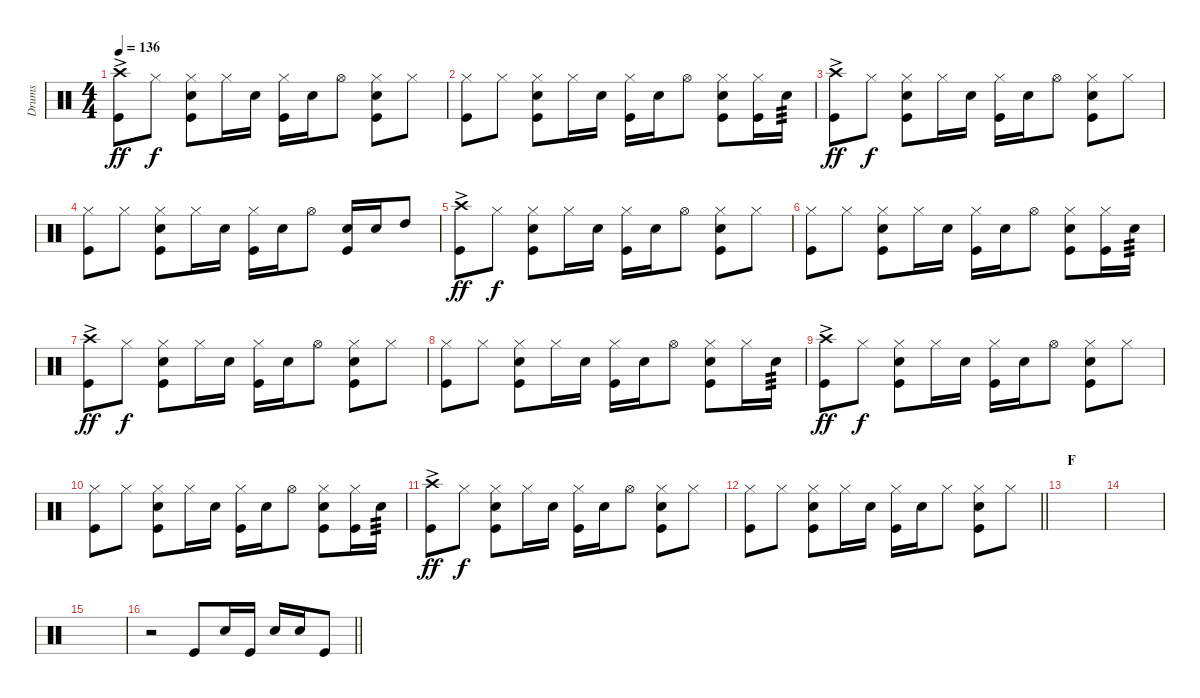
\track ("Drums" "Drums") {instrument percussion}
\staff {score}
\articulation defaults
\ts (4 4)
\tempo 136
\clef neutral
\ks c
("Crash high (hit)"{ac} "Kick (hit)").8{dy ff} "Hi-Hat (closed)".8{dy f} ("Hi-Hat (closed)" "Snare (hit) 2" "Kick (hit)").8 "Hi-Hat (closed)".16 "Snare (hit) 2".16 ("Hi-Hat (closed)" "Kick (hit)").16 "Snare (hit) 2".16 "Hi-Hat (open)".8 ("Hi-Hat (closed)" "Snare (hit) 2" "Kick (hit)").8 "Hi-Hat (closed)".8 |
("Hi-Hat (closed)" "Kick (hit)").8 "Hi-Hat (closed)".8 ("Hi-Hat (closed)" "Snare (hit) 2" "Kick (hit)").8 "Hi-Hat (closed)".16 "Snare (hit) 2".16 ("Hi-Hat (closed)" "Kick (hit)").16 "Snare (hit) 2".16 "Hi-Hat (open)".8 ("Hi-Hat (closed)" "Snare (hit) 2" "Kick (hit)").8 ("Hi-Hat (closed)" "Kick (hit)").16 "Snare (hit) 2".16{tp 3} |
("Crash high (hit)"{ac} "Kick (hit)").8{dy ff} "Hi-Hat (closed)".8{dy f} ("Hi-Hat (closed)" "Snare (hit) 2" "Kick (hit)").8 "Hi-Hat (closed)".16 "Snare (hit) 2".16 ("Hi-Hat (closed)" "Kick (hit)").16 "Snare (hit) 2".16 "Hi-Hat (open)".8 ("Hi-Hat (closed)" "Snare (hit) 2" "Kick (hit)").8 "Hi-Hat (closed)".8 |
("Hi-Hat (closed)" "Kick (hit)").8 "Hi-Hat (closed)".8 ("Hi-Hat (closed)" "Snare (hit) 2" "Kick (hit)").8 "Hi-Hat (closed)".16 "Snare (hit) 2".16 ("Hi-Hat (closed)" "Kick (hit)").16 "Snare (hit) 2".16 "Hi-Hat (open)".8 ("Kick (hit)" "Snare (hit) 2").16 "Snare (hit) 2".16 "High Tom (hit)".8 |
("Crash high (hit)"{ac} "Kick (hit)").8{dy ff} "Hi-Hat (closed)".8{dy f} ("Hi-Hat (closed)" "Snare (hit) 2" "Kick (hit)").8 "Hi-Hat (closed)".16 "Snare (hit) 2".16 ("Hi-Hat (closed)" "Kick (hit)").16 "Snare (hit) 2".16 "Hi-Hat (open)".8 ("Hi-Hat (closed)" "Snare (hit) 2" "Kick (hit)").8 "Hi-Hat (closed)".8 |
("Hi-Hat (closed)" "Kick (hit)").8 "Hi-Hat (closed)".8 ("Hi-Hat (closed)" "Snare (hit) 2" "Kick (hit)").8 "Hi-Hat (closed)".16 "Snare (hit) 2".16 ("Hi-Hat (closed)" "Kick (hit)").16 "Snare (hit) 2".16 "Hi-Hat (open)".8 ("Hi-Hat (closed)" "Snare (hit) 2" "Kick (hit)").8 ("Hi-Hat (closed)" "Kick (hit)").16 "Snare (hit) 2".16{tp 3} |
("Crash high (hit)"{ac} "Kick (hit)").8{dy ff} "Hi-Hat (closed)".8{dy f} ("Hi-Hat (closed)" "Snare (hit) 2" "Kick (hit)").8 "Hi-Hat (closed)".16 "Snare (hit) 2".16 ("Hi-Hat (closed)" "Kick (hit)").16 "Snare (hit) 2".16 "Hi-Hat (open)".8 ("Hi-Hat (closed)" "Snare (hit) 2" "Kick (hit)").8 "Hi-Hat (closed)".8 |
("Hi-Hat (closed)" "Kick (hit)").8 "Hi-Hat (closed)".8 ("Hi-Hat (closed)" "Snare (hit) 2" "Kick (hit)").8 "Hi-Hat (closed)".16 "Snare (hit) 2".16 ("Hi-Hat (closed)" "Kick (hit)").16 "Snare (hit) 2".16 "Hi-Hat (open)".8 ("Hi-Hat (closed)" "Snare (hit) 2" "Kick (hit)").8 "Hi-Hat (closed)".16 "Snare (hit) 2".16{tp 3} |
("Crash high (hit)"{ac} "Kick (hit)").8{dy ff} "Hi-Hat (closed)".8{dy f} ("Hi-Hat (closed)" "Snare (hit) 2" "Kick (hit)").8 "Hi-Hat (closed)".16 "Snare (hit) 2".16 ("Hi-Hat (closed)" "Kick (hit)").16 "Snare (hit) 2".16 "Hi-Hat (open)".8 ("Hi-Hat (closed)" "Snare (hit) 2" "Kick (hit)").8 "Hi-Hat (closed)".8 |
("Hi-Hat (closed)" "Kick (hit)").8 "Hi-Hat (closed)".8 ("Hi-Hat (closed)" "Snare (hit) 2" "Kick (hit)").8 "Hi-Hat (closed)".16 "Snare (hit) 2".16 ("Hi-Hat (closed)" "Kick (hit)").16 "Snare (hit) 2".16 "Hi-Hat (open)".8 ("Hi-Hat (closed)" "Snare (hit) 2" "Kick (hit)").8 ("Hi-Hat (closed)" "Kick (hit)").16 "Snare (hit) 2".16{tp 3} |
("Crash high (hit)"{ac} "Kick (hit)").8{dy ff} "Hi-Hat (closed)".8{dy f} ("Hi-Hat (closed)" "Snare (hit) 2" "Kick (hit)").8 "Hi-Hat (closed)".16 "Snare (hit) 2".16 ("Hi-Hat (closed)" "Kick (hit)").16 "Snare (hit) 2".16 "Hi-Hat (open)".8 ("Hi-Hat (closed)" "Snare (hit) 2" "Kick (hit)").8 "Hi-Hat (closed)".8 |
\barLineRight lightlight
("Hi-Hat (closed)" "Kick (hit)").8 "Hi-Hat (closed)".8 ("Hi-Hat (closed)" "Snare (hit) 2" "Kick (hit)").8 "Hi-Hat (closed)".16 "Snare (hit) 2".16 ("Hi-Hat (closed)" "Kick (hit)").16 "Snare (hit) 2".16 "Hi-Hat (closed)".8 ("Hi-Hat (closed)" "Snare (hit) 2" "Kick (hit)").8 "Hi-Hat (closed)".8 |
\section ("" "F")
|
|
|
\barLineRight lightlight
r.2 "Kick (hit)".8 "Snare (hit) 2".16 "Kick (hit)".16 "Snare (hit) 2".16 "Snare (hit) 2".16 "Kick (hit)".8
